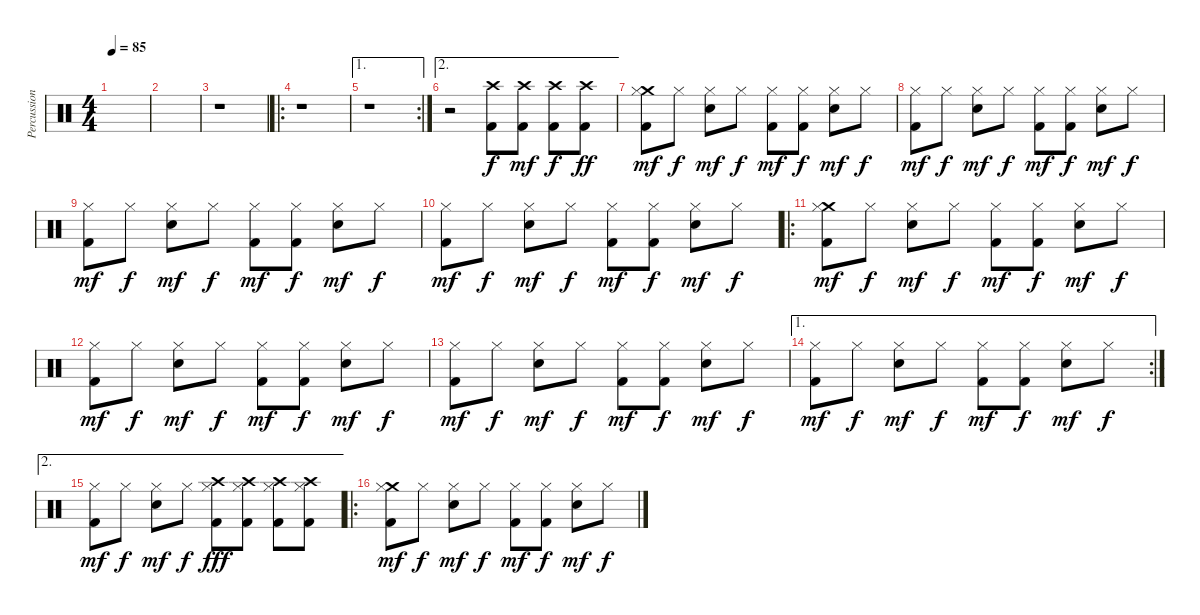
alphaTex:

\track ("Percussion" "Percussion") {instrument percussion}
\staff {score}
\articulation defaults
\ts (4 4)
\tempo 85
\clef neutral
\ks c
|
|
r.1 |
\ro
r.1 |
\ae 1
\rc 2
r.1 |
\ae 2
r.2 ("Crash high (hit)" "Kick (hit) 2").8 ("Crash high (hit)" "Kick (hit) 2").8{dy mf} ("Crash high (hit)" "Kick (hit) 2").8{dy f} ("Crash high (hit)" "Kick (hit) 2").8{dy ff} |
("Crash medium (hit)" "Hi-Hat (closed)" "Kick (hit) 2").8{dy mf} "Hi-Hat (closed)".8{dy f} ("Hi-Hat (closed)" "Snare (hit) 2").8{dy mf} "Hi-Hat (closed)".8{dy f} ("Hi-Hat (closed)" "Kick (hit) 2").8{dy mf} ("Hi-Hat (closed)" "Kick (hit) 2").8{dy f} ("Hi-Hat (closed)" "Snare (hit) 2").8{dy mf} "Hi-Hat (closed)".8{dy f} |
("Hi-Hat (closed)" "Kick (hit) 2").8{dy mf} "Hi-Hat (closed)".8{dy f} ("Hi-Hat (closed)" "Snare (hit) 2").8{dy mf} "Hi-Hat (closed)".8{dy f} ("Hi-Hat (closed)" "Kick (hit) 2").8{dy mf} ("Hi-Hat (closed)" "Kick (hit) 2").8{dy f} ("Hi-Hat (closed)" "Snare (hit) 2").8{dy mf} "Hi-Hat (closed)".8{dy f} |
("Hi-Hat (closed)" "Kick (hit) 2").8{dy mf} "Hi-Hat (closed)".8{dy f} ("Hi-Hat (closed)" "Snare (hit) 2").8{dy mf} "Hi-Hat (closed)".8{dy f} ("Hi-Hat (closed)" "Kick (hit) 2").8{dy mf} ("Hi-Hat (closed)" "Kick (hit) 2").8{dy f} ("Hi-Hat (closed)" "Snare (hit) 2").8{dy mf} "Hi-Hat (closed)".8{dy f} |
("Hi-Hat (closed)" "Kick (hit) 2").8{dy mf} "Hi-Hat (closed)".8{dy f} ("Hi-Hat (closed)" "Snare (hit) 2").8{dy mf} "Hi-Hat (closed)".8{dy f} ("Hi-Hat (closed)" "Kick (hit) 2").8{dy mf} ("Hi-Hat (closed)" "Kick (hit) 2").8{dy f} ("Hi-Hat (closed)" "Snare (hit) 2").8{dy mf} "Hi-Hat (closed)".8{dy f} |
\ro
("Crash medium (hit)" "Hi-Hat (closed)" "Kick (hit) 2").8{dy mf} "Hi-Hat (closed)".8{dy f} ("Hi-Hat (closed)" "Snare (hit) 2").8{dy mf} "Hi-Hat (closed)".8{dy f} ("Hi-Hat (closed)" "Kick (hit) 2").8{dy mf} ("Hi-Hat (closed)" "Kick (hit) 2").8{dy f} ("Hi-Hat (closed)" "Snare (hit) 2").8{dy mf} "Hi-Hat (closed)".8{dy f} |
("Hi-Hat (closed)" "Kick (hit) 2").8{dy mf} "Hi-Hat (closed)".8{dy f} ("Hi-Hat (closed)" "Snare (hit) 2").8{dy mf} "Hi-Hat (closed)".8{dy f} ("Hi-Hat (closed)" "Kick (hit) 2").8{dy mf} ("Hi-Hat (closed)" "Kick (hit) 2").8{dy f} ("Hi-Hat (closed)" "Snare (hit) 2").8{dy mf} "Hi-Hat (closed)".8{dy f} |
("Hi-Hat (closed)" "Kick (hit) 2").8{dy mf} "Hi-Hat (closed)".8{dy f} ("Hi-Hat (closed)" "Snare (hit) 2").8{dy mf} "Hi-Hat (closed)".8{dy f} ("Hi-Hat (closed)" "Kick (hit) 2").8{dy mf} ("Hi-Hat (closed)" "Kick (hit) 2").8{dy f} ("Hi-Hat (closed)" "Snare (hit) 2").8{dy mf} "Hi-Hat (closed)".8{dy f} |
\ae 1
\rc 2
("Hi-Hat (closed)" "Kick (hit) 2").8{dy mf} "Hi-Hat (closed)".8{dy f} ("Hi-Hat (closed)" "Snare (hit) 2").8{dy mf} "Hi-Hat (closed)".8{dy f} ("Hi-Hat (closed)" "Kick (hit) 2").8{dy mf} ("Hi-Hat (closed)" "Kick (hit) 2").8{dy f} ("Hi-Hat (closed)" "Snare (hit) 2").8{dy mf} "Hi-Hat (closed)".8{dy f} |
\ae 2
("Hi-Hat (closed)" "Kick (hit) 2").8{dy mf} "Hi-Hat (closed)".8{dy f} ("Hi-Hat (closed)" "Snare (hit) 2").8{dy mf} "Hi-Hat (closed)".8{dy f} ("Crash high (hit)" "Hi-Hat (closed)" "Kick (hit) 2").8{dy fff} ("Crash high (hit)" "Hi-Hat (closed)" "Kick (hit) 2").8 ("Crash high (hit)" "Hi-Hat (closed)" "Kick (hit) 2").8 ("Crash high (hit)" "Hi-Hat (closed)" "Kick (hit) 2").8 |
\ro
("Crash medium (hit)" "Hi-Hat (closed)" "Kick (hit) 2").8{dy mf} "Hi-Hat (closed)".8{dy f} ("Hi-Hat (closed)" "Snare (hit) 2").8{dy mf} "Hi-Hat (closed)".8{dy f} ("Hi-Hat (closed)" "Kick (hit) 2").8{dy mf} ("Hi-Hat (closed)" "Kick (hit) 2").8{dy f} ("Hi-Hat (closed)" "Snare (hit) 2").8{dy mf} "Hi-Hat (closed)".8{dy f}
